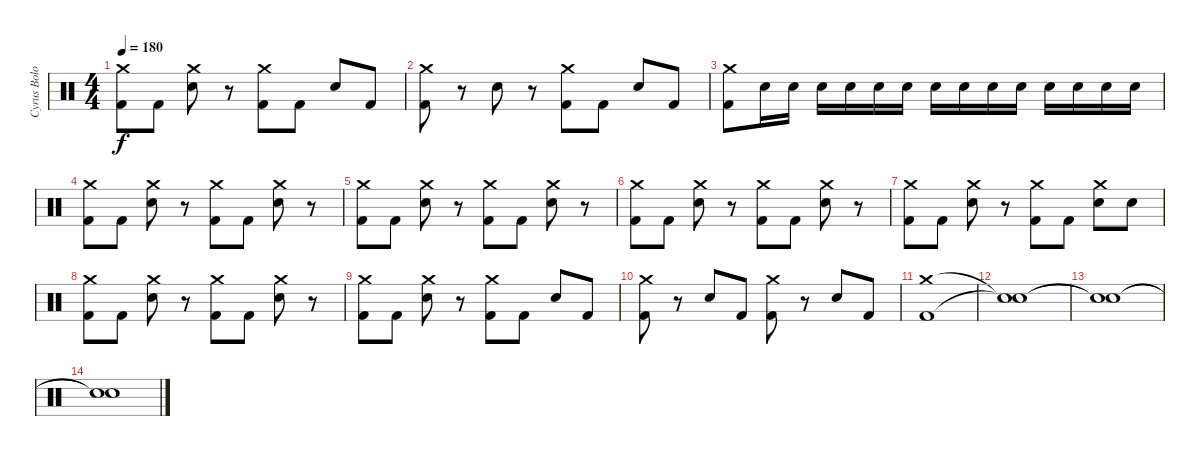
\track ("Cyrus Bolooki - Drums" "Cyrus Bolo") {instrument percussion}
\staff {score}
\articulation defaults
\ts (4 4)
\tempo 180
\clef neutral
\ks c
("Crash medium (hit)" "Kick (hit) 2").8{dy f} "Kick (hit) 2".8 ("Crash medium (hit)" "Electric Snare (hit)").8 r.8 ("Crash medium (hit)" "Kick (hit) 2").8 "Kick (hit) 2".8 "Electric Snare (hit)".8 "Kick (hit) 2".8 |
("Crash medium (hit)" "Kick (hit) 2").8 r.8 "Electric Snare (hit)".8 r.8 ("Crash medium (hit)" "Kick (hit) 2").8 "Kick (hit) 2".8 "Electric Snare (hit)".8 "Kick (hit) 2".8 |
("Crash medium (hit)" "Kick (hit) 2").8 "Electric Snare (hit)".16 "Electric Snare (hit)".16 "Electric Snare (hit)".16 "Electric Snare (hit)".16 "Electric Snare (hit)".16 "Electric Snare (hit)".16 "Electric Snare (hit)".16 "Electric Snare (hit)".16 "Electric Snare (hit)".16 "Electric Snare (hit)".16 "Electric Snare (hit)".16 "Electric Snare (hit)".16 "Electric Snare (hit)".16 "Electric Snare (hit)".16 |
("Crash medium (hit)" "Kick (hit) 2").8 "Kick (hit) 2".8 ("Crash medium (hit)" "Electric Snare (hit)").8 r.8 ("Crash medium (hit)" "Kick (hit) 2").8 "Kick (hit) 2".8 ("Crash medium (hit)" "Electric Snare (hit)").8 r.8 |
("Crash medium (hit)" "Kick (hit) 2").8 "Kick (hit) 2".8 ("Crash medium (hit)" "Electric Snare (hit)").8 r.8 ("Crash medium (hit)" "Kick (hit) 2").8 "Kick (hit) 2".8 ("Crash medium (hit)" "Electric Snare (hit)").8 r.8 |
("Crash medium (hit)" "Kick (hit) 2").8 "Kick (hit) 2".8 ("Crash medium (hit)" "Electric Snare (hit)").8 r.8 ("Crash medium (hit)" "Kick (hit) 2").8 "Kick (hit) 2".8 ("Crash medium (hit)" "Electric Snare (hit)").8 r.8 |
("Crash medium (hit)" "Kick (hit) 2").8 "Kick (hit) 2".8 ("Crash medium (hit)" "Electric Snare (hit)").8 r.8 ("Crash medium (hit)" "Kick (hit) 2").8 "Kick (hit) 2".8 ("Crash medium (hit)" "Electric Snare (hit)").8 "Electric Snare (hit)".8 |
("Crash medium (hit)" "Kick (hit) 2").8 "Kick (hit) 2".8 ("Crash medium (hit)" "Electric Snare (hit)").8 r.8 ("Crash medium (hit)" "Kick (hit) 2").8 "Kick (hit) 2".8 ("Crash medium (hit)" "Electric Snare (hit)").8 r.8 |
("Crash medium (hit)" "Kick (hit) 2").8 "Kick (hit) 2".8 ("Crash medium (hit)" "Electric Snare (hit)").8 r.8 ("Crash medium (hit)" "Kick (hit) 2").8 "Kick (hit) 2".8 "Electric Snare (hit)".8 "Kick (hit) 2".8 |
("Crash medium (hit)" "Kick (hit) 2").8 r.8 "Electric Snare (hit)".8 "Kick (hit) 2".8 ("Crash medium (hit)" "Kick (hit) 2").8 r.8 "Electric Snare (hit)".8 "Kick (hit) 2".8 |
("Crash medium (hit)" "Kick (hit) 2").1 |
("Snare (hit)"{t} "Snare (hit)"{t}).1 |
("Snare (hit)"{t} "Snare (hit)"{t}).1 |
("Snare (hit)"{t} "Snare (hit)"{t}).1
